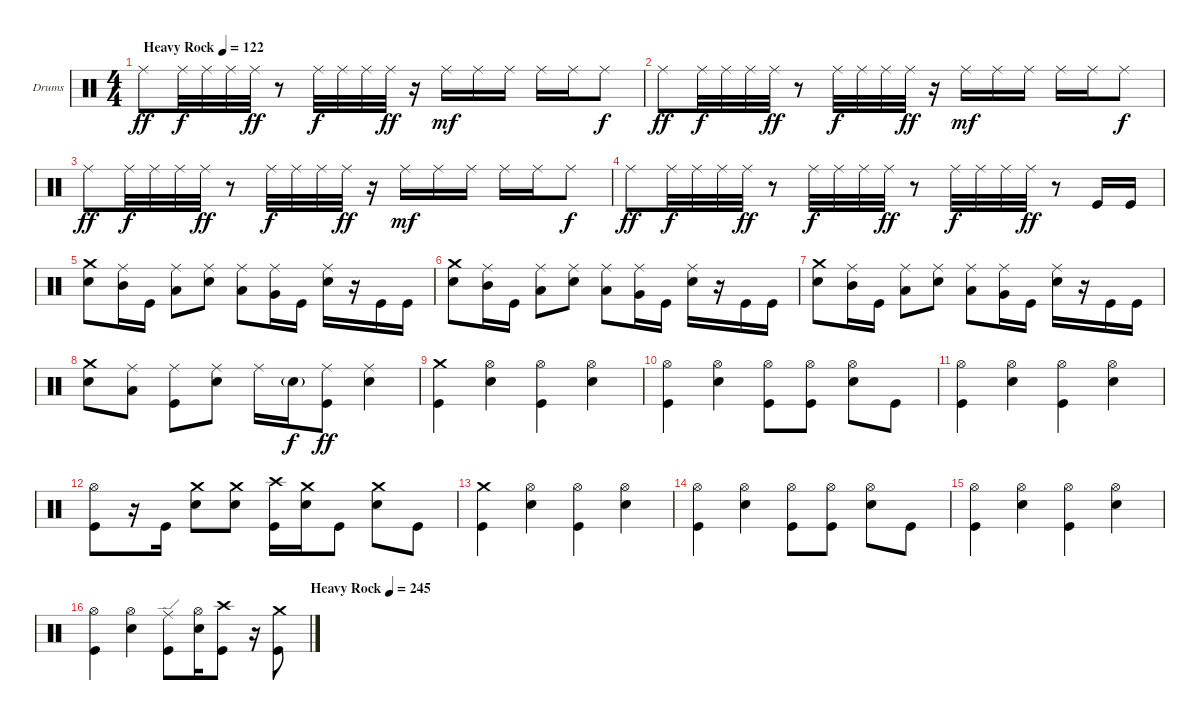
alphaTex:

\bracketExtendMode groupsimilarinstruments
\firstSystemTrackNameOrientation horizontal
\otherSystemsTrackNameOrientation horizontal
\track ("Drumkit" "Drums") {instrument percussion}
\staff {score}
\articulation defaults
\ts (4 4)
\beaming (8 2 2 2 2)
\tempo (122 "Heavy Rock")
\clef neutral
\ks c "Ride (middle)".8{dy ff} "Ride (middle)".32{dy f} "Ride (middle)".32 "Ride (middle)".32 "Ride (middle)".32{dy ff}
r.8 "Ride (middle)".32{dy f} "Ride (middle)".32 "Ride (middle)".32 "Ride (middle)".32{dy ff} r.16 "Ride (middle)".16{dy mf} "Ride (middle)".16 "Ride (middle)".16 "Ride (middle)".16 "Ride (middle)".16 "Ride (middle)".8{dy f} |
"Ride (middle)".8{dy ff} "Ride (middle)".32{dy f} "Ride (middle)".32 "Ride (middle)".32 "Ride (middle)".32{dy ff} r.8 "Ride (middle)".32{dy f} "Ride (middle)".32 "Ride (middle)".32 "Ride (middle)".32{dy ff} r.16 "Ride (middle)".16{dy mf} "Ride (middle)".16 "Ride (middle)".16 "Ride (middle)".16 "Ride (middle)".16 "Ride (middle)".8{dy f} |
"Ride (middle)".8{dy ff} "Ride (middle)".32{dy f} "Ride (middle)".32 "Ride (middle)".32 "Ride (middle)".32{dy ff} r.8 "Ride (middle)".32{dy f} "Ride (middle)".32 "Ride (middle)".32 "Ride (middle)".32{dy ff} r.16 "Ride (middle)".16{dy mf} "Ride (middle)".16 "Ride (middle)".16 "Ride (middle)".16 "Ride (middle)".16 "Ride (middle)".8{dy f} |
"Ride (middle)".8{dy ff} "Ride (middle)".32{dy f} "Ride (middle)".32 "Ride (middle)".32 "Ride (middle)".32{dy ff} r.8 "Ride (middle)".32{dy f} "Ride (middle)".32 "Ride (middle)".32 "Ride (middle)".32{dy ff} r.8 "Ride (middle)".32{dy f} "Ride (middle)".32 "Ride (middle)".32 "Ride (middle)".32{dy ff} r.8 "Kick (hit)".16 "Kick (hit)".16 |
("Crash medium (hit)" "Snare (hit) 2").8 ("Ride (middle)" "Mid Tom (hit)").16 "Kick (hit)".16 ("Ride (middle)" "Low Tom (hit)").8 ("Ride (middle)" "Snare (hit) 2").8 ("Ride (middle)" "Low Tom (hit)").8 ("Ride (middle)" "Very Low Tom (hit)").16 "Kick (hit)".16 ("Ride (middle)" "Snare (hit) 2").16 r.16 "Kick (hit)".16 "Kick (hit)".16 |
("Crash medium (hit)" "Snare (hit) 2").8 ("Ride (middle)" "Mid Tom (hit)").16 "Kick (hit)".16 ("Ride (middle)" "Low Tom (hit)").8 ("Ride (middle)" "Snare (hit) 2").8 ("Ride (middle)" "Low Tom (hit)").8 ("Ride (middle)" "Very Low Tom (hit)").16 "Kick (hit)".16 ("Ride (middle)" "Snare (hit) 2").16 r.16 "Kick (hit)".16 "Kick (hit)".16 |
("Crash medium (hit)" "Snare (hit) 2").8 ("Ride (middle)" "Mid Tom (hit)").16 "Kick (hit)".16 ("Ride (middle)" "Low Tom (hit)").8 ("Ride (middle)" "Snare (hit) 2").8 ("Ride (middle)" "Low Tom (hit)").8 ("Ride (middle)" "Very Low Tom (hit)").16 "Kick (hit)".16 ("Ride (middle)" "Snare (hit) 2").16 r.16 "Kick (hit)".16 "Kick (hit)".16 |
("Crash medium (hit)" "Snare (hit) 2").8 ("Ride (middle)" "Low Tom (hit)").8 ("Ride (middle)" "Kick (hit)").8 ("Ride (middle)" "Snare (hit) 2").8 "Ride (middle)".16 "Snare (hit) 2"{g}.16{dy f} ("Ride (middle)" "Kick (hit)").8{dy ff} ("Ride (middle)" "Snare (hit) 2").4 |
("Crash medium (hit)" "Kick (hit)").4 ("Snare (hit) 2" "Hi-Hat (open)").4 ("Kick (hit)" "Hi-Hat (open)").4 ("Snare (hit) 2" "Hi-Hat (open)").4 |
("Kick (hit)" "Hi-Hat (open)").4 ("Snare (hit) 2" "Hi-Hat (open)").4 ("Kick (hit)" "Hi-Hat (open)").8 ("Kick (hit)" "Hi-Hat (open)").8 ("Snare (hit) 2" "Hi-Hat (open)").8 "Kick (hit)".8 |
("Kick (hit)" "Hi-Hat (open)").4 ("Snare (hit) 2" "Hi-Hat (open)").4 ("Kick (hit)" "Hi-Hat (open)").4 ("Snare (hit) 2" "Hi-Hat (open)").4 |
("Kick (hit)" "Hi-Hat (open)").8 r.16 "Kick (hit)".16 ("Snare (hit) 2" "Crash medium (hit)").8 ("Snare (hit) 2" "Crash medium (hit)").8 ("Kick (hit)" "Crash high (hit)").16 ("Snare (hit) 2" "Crash medium (hit)").16 "Kick (hit)".8 ("Snare (hit) 2" "Crash medium (hit)").8 "Kick (hit)".8 |
("Crash medium (hit)" "Kick (hit)").4 ("Snare (hit) 2" "Hi-Hat (open)").4 ("Kick (hit)" "Hi-Hat (open)").4 ("Snare (hit) 2" "Hi-Hat (open)").4 |
("Kick (hit)" "Hi-Hat (open)").4 ("Snare (hit) 2" "Hi-Hat (open)").4 ("Kick (hit)" "Hi-Hat (open)").8 ("Kick (hit)" "Hi-Hat (open)").8 ("Snare (hit) 2" "Hi-Hat (open)").8 "Kick (hit)".8 |
("Kick (hit)" "Hi-Hat (open)").4 ("Snare (hit) 2" "Hi-Hat (open)").4 ("Kick (hit)" "Hi-Hat (open)").4 ("Snare (hit) 2" "Hi-Hat (open)").4 |
\tempo (245 "Heavy Rock" 1)
("Kick (hit)" "Hi-Hat (open)").4 ("Snare (hit) 2" "Hi-Hat (open)").4 ("Kick (hit)" "Ride (edge)").8 ("Snare (hit) 2" "Hi-Hat (open)").16 ("Kick (hit)" "Crash high (hit)").8 r.16 ("Kick (hit)" "Crash medium (hit)").8
